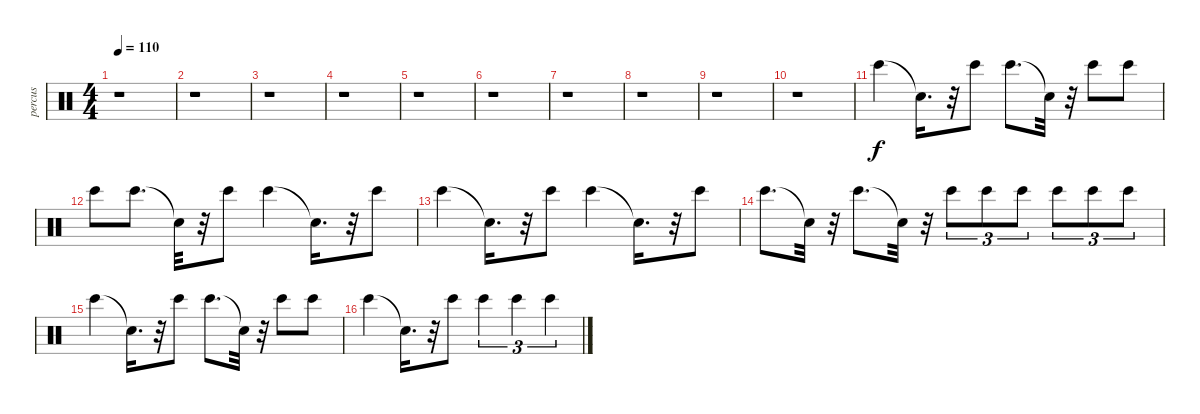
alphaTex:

\track ("percus" "percus") {instrument percussion}
\staff {score}
\articulation defaults
\ts (4 4)
\tempo 110
\clef neutral
\ks c
r.1{dy f} |
r.1 |
r.1 |
r.1 |
r.1 |
r.1 |
r.1 |
r.1 |
r.1 |
r.1 |
"Bongo High (hit)".4 "Snare (hit)"{t}.16{d} r.32 "Bongo High (hit)".8 "Bongo High (hit)".8{d} "Snare (hit)"{t}.32 r.32 "Bongo High (hit)".8 "Bongo High (hit)".8 |
"Bongo High (hit)".8 "Bongo High (hit)".8{d} "Snare (hit)"{t}.32 r.32 "Bongo High (hit)".8 "Bongo High (hit)".4 "Snare (hit)"{t}.16{d} r.32 "Bongo High (hit)".8 |
"Bongo High (hit)".4 "Snare (hit)"{t}.16{d} r.32 "Bongo High (hit)".8 "Bongo High (hit)".4 "Snare (hit)"{t}.16{d} r.32 "Bongo High (hit)".8 |
"Bongo High (hit)".8{d} "Snare (hit)"{t}.32 r.32 "Bongo High (hit)".8{d} "Snare (hit)"{t}.32 r.32 "Bongo High (hit)".8{tu (3 2)} "Bongo High (hit)".8{tu (3 2)} "Bongo High (hit)".8{tu (3 2)} "Bongo High (hit)".8{tu (3 2)} "Bongo High (hit)".8{tu (3 2)} "Bongo High (hit)".8{tu (3 2)} |
"Bongo High (hit)".4 "Snare (hit)"{t}.16{d} r.32 "Bongo High (hit)".8 "Bongo High (hit)".8{d} "Snare (hit)"{t}.32 r.32 "Bongo High (hit)".8 "Bongo High (hit)".8 |
"Bongo High (hit)".4 "Snare (hit)"{t}.16{d} r.32 "Bongo High (hit)".8 "Bongo High (hit)".4{tu (3 2)} "Bongo High (hit)".4{tu (3 2)} "Bongo High (hit)".4{tu (3 2)}
